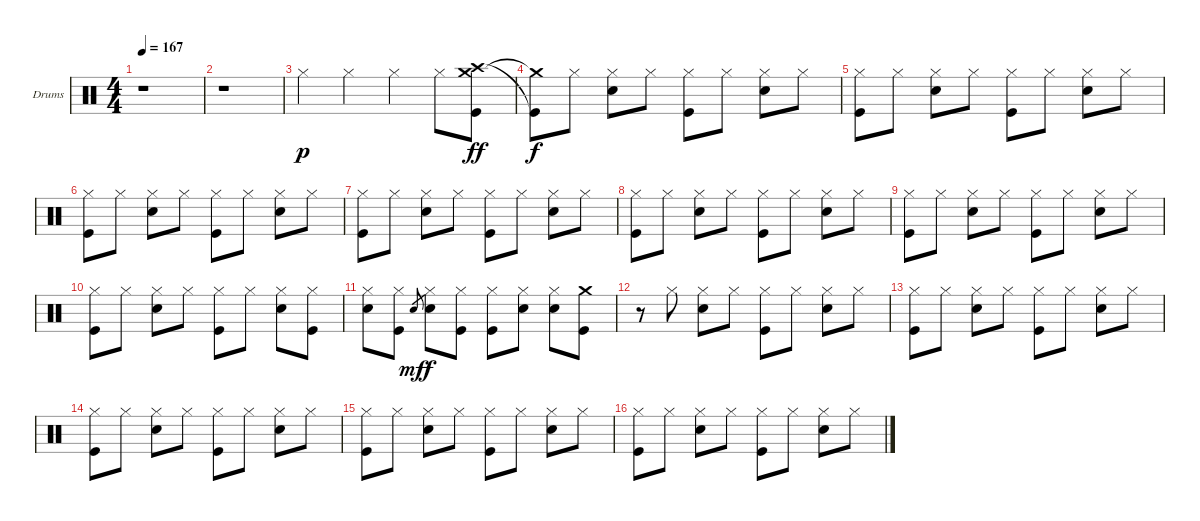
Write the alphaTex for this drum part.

\bracketExtendMode groupsimilarinstruments
\firstSystemTrackNameOrientation horizontal
\otherSystemsTrackNameOrientation horizontal
\track ("Drumkit" "Drums") {instrument percussion}
\staff {score}
\articulation defaults
\ts (4 4)
\tempo 167
\clef neutral
\ks c
r.1{dy p} |
r.1 |
"Hi-Hat (closed)".4 "Hi-Hat (closed)".4 "Hi-Hat (closed)".4 "Hi-Hat (closed)".8 ("Crash medium (hit)" "Crash high (hit)" "Kick (hit)").8{dy ff} |
("Crash medium (hit)"{t} "Kick (hit)"{t}).8{dy f} "Hi-Hat (closed)".8 ("Hi-Hat (closed)" "Snare (hit) 2").8 "Hi-Hat (closed)".8 ("Hi-Hat (closed)" "Kick (hit)").8 "Hi-Hat (closed)".8 ("Hi-Hat (closed)" "Snare (hit) 2").8 "Hi-Hat (closed)".8 |
("Hi-Hat (closed)" "Kick (hit)").8 "Hi-Hat (closed)".8 ("Hi-Hat (closed)" "Snare (hit) 2").8 "Hi-Hat (closed)".8 ("Hi-Hat (closed)" "Kick (hit)").8 "Hi-Hat (closed)".8 ("Hi-Hat (closed)" "Snare (hit) 2").8 "Hi-Hat (closed)".8 |
("Hi-Hat (closed)" "Kick (hit)").8 "Hi-Hat (closed)".8 ("Hi-Hat (closed)" "Snare (hit) 2").8 "Hi-Hat (closed)".8 ("Hi-Hat (closed)" "Kick (hit)").8 "Hi-Hat (closed)".8 ("Hi-Hat (closed)" "Snare (hit) 2").8 "Hi-Hat (closed)".8 |
("Hi-Hat (closed)" "Kick (hit)").8 "Hi-Hat (closed)".8 ("Hi-Hat (closed)" "Snare (hit) 2").8 "Hi-Hat (closed)".8 ("Hi-Hat (closed)" "Kick (hit)").8 "Hi-Hat (closed)".8 ("Hi-Hat (closed)" "Snare (hit) 2").8 "Hi-Hat (closed)".8 |
("Hi-Hat (closed)" "Kick (hit)").8 "Hi-Hat (closed)".8 ("Hi-Hat (closed)" "Snare (hit) 2").8 "Hi-Hat (closed)".8 ("Hi-Hat (closed)" "Kick (hit)").8 "Hi-Hat (closed)".8 ("Hi-Hat (closed)" "Snare (hit) 2").8 "Hi-Hat (closed)".8 |
("Hi-Hat (closed)" "Kick (hit)").8 "Hi-Hat (closed)".8 ("Hi-Hat (closed)" "Snare (hit) 2").8 "Hi-Hat (closed)".8 ("Hi-Hat (closed)" "Kick (hit)").8 "Hi-Hat (closed)".8 ("Hi-Hat (closed)" "Snare (hit) 2").8 "Hi-Hat (closed)".8 |
("Hi-Hat (closed)" "Kick (hit)").8 "Hi-Hat (closed)".8 ("Hi-Hat (closed)" "Snare (hit) 2").8 "Hi-Hat (closed)".8 ("Hi-Hat (closed)" "Kick (hit)").8 "Hi-Hat (closed)".8 ("Hi-Hat (closed)" "Snare (hit) 2").8 ("Hi-Hat (closed)" "Kick (hit)").8 |
("Hi-Hat (closed)" "Snare (hit) 2").8 ("Hi-Hat (closed)" "Kick (hit)").8 "Snare (hit) 2".8{gr dy mf} ("Hi-Hat (closed)" "Snare (hit) 2").8{dy f} ("Hi-Hat (closed)" "Kick (hit)").8 ("Hi-Hat (closed)" "Kick (hit)").8 ("Hi-Hat (closed)" "Snare (hit) 2").8 ("Hi-Hat (closed)" "Snare (hit) 2").8 ("Crash medium (hit)" "Kick (hit)").8 |
r.8 "Hi-Hat (closed)".8 ("Hi-Hat (closed)" "Snare (hit) 2").8 "Hi-Hat (closed)".8 ("Hi-Hat (closed)" "Kick (hit)").8 "Hi-Hat (closed)".8 ("Hi-Hat (closed)" "Snare (hit) 2").8 "Hi-Hat (closed)".8 |
("Hi-Hat (closed)" "Kick (hit)").8 "Hi-Hat (closed)".8 ("Hi-Hat (closed)" "Snare (hit) 2").8 "Hi-Hat (closed)".8 ("Hi-Hat (closed)" "Kick (hit)").8 "Hi-Hat (closed)".8 ("Hi-Hat (closed)" "Snare (hit) 2").8 "Hi-Hat (closed)".8 |
("Hi-Hat (closed)" "Kick (hit)").8 "Hi-Hat (closed)".8 ("Hi-Hat (closed)" "Snare (hit) 2").8 "Hi-Hat (closed)".8 ("Hi-Hat (closed)" "Kick (hit)").8 "Hi-Hat (closed)".8 ("Hi-Hat (closed)" "Snare (hit) 2").8 "Hi-Hat (closed)".8 |
("Hi-Hat (closed)" "Kick (hit)").8 "Hi-Hat (closed)".8 ("Hi-Hat (closed)" "Snare (hit) 2").8 "Hi-Hat (closed)".8 ("Hi-Hat (closed)" "Kick (hit)").8 "Hi-Hat (closed)".8 ("Hi-Hat (closed)" "Snare (hit) 2").8 "Hi-Hat (closed)".8 |
("Hi-Hat (closed)" "Kick (hit)").8 "Hi-Hat (closed)".8 ("Hi-Hat (closed)" "Snare (hit) 2").8 "Hi-Hat (closed)".8 ("Hi-Hat (closed)" "Kick (hit)").8 "Hi-Hat (closed)".8 ("Hi-Hat (closed)" "Snare (hit) 2").8 "Hi-Hat (closed)".8
